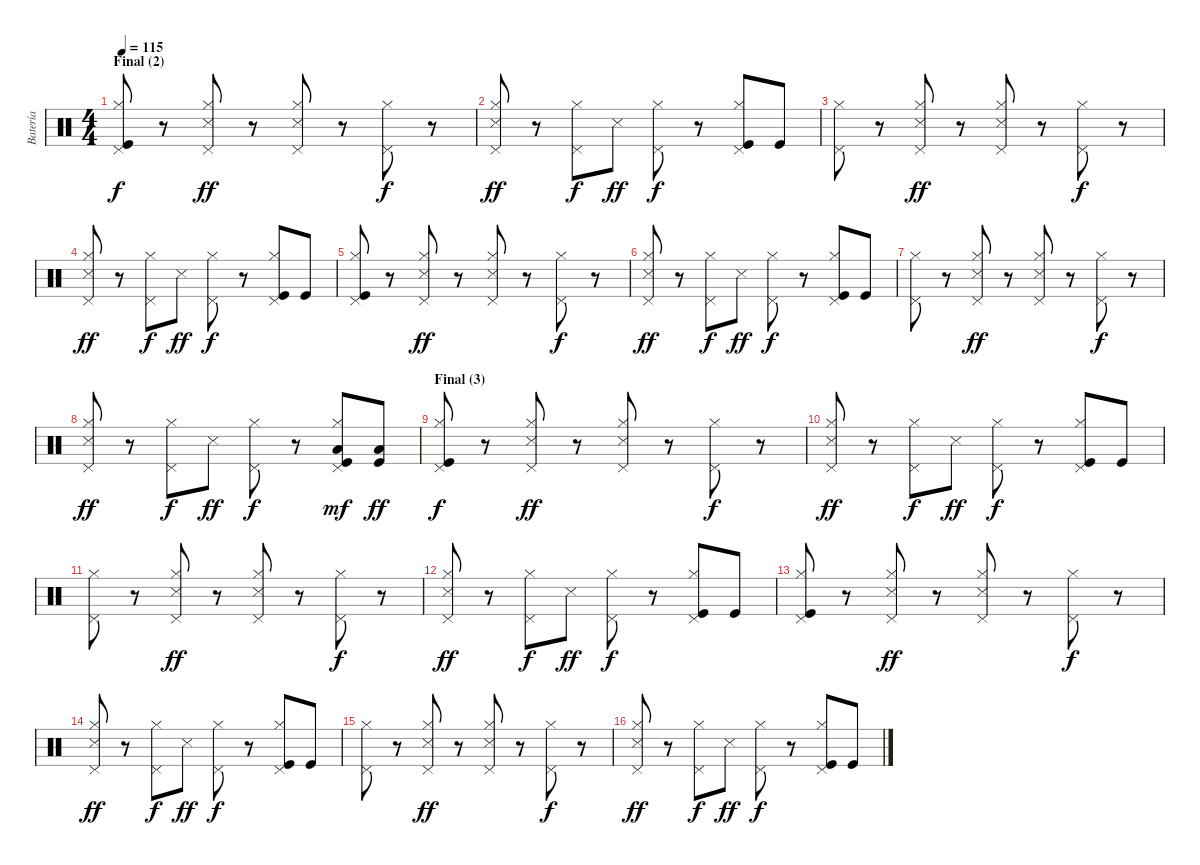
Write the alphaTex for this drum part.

\track ("Batería" "Batería") {instrument percussion}
\staff {score}
\articulation defaults
\ts (4 4)
\section ("" "Final (2)")
\tempo 115
\clef neutral
\ks c
("Pedal Hi-Hat (hit)" "Hi-Hat (closed)" "Kick (hit)").8{dy f} r.8 ("Pedal Hi-Hat (hit)" "Hi-Hat (closed)" "Snare (side stick) 3").8{dy ff} r.8 ("Pedal Hi-Hat (hit)" "Hi-Hat (closed)" "Snare (side stick) 3").8 r.8 ("Pedal Hi-Hat (hit)" "Hi-Hat (closed)").8{dy f} r.8 |
("Pedal Hi-Hat (hit)" "Hi-Hat (closed)" "Snare (side stick) 3").8{dy ff} r.8 ("Pedal Hi-Hat (hit)" "Hi-Hat (closed)").8{dy f} "Snare (side stick) 3".8{dy ff} ("Pedal Hi-Hat (hit)" "Hi-Hat (closed)").8{dy f} r.8 ("Pedal Hi-Hat (hit)" "Hi-Hat (closed)" "Kick (hit)").8 "Kick (hit)".8 |
("Pedal Hi-Hat (hit)" "Hi-Hat (closed)").8 r.8 ("Pedal Hi-Hat (hit)" "Hi-Hat (closed)" "Snare (side stick) 3").8{dy ff} r.8 ("Pedal Hi-Hat (hit)" "Hi-Hat (closed)" "Snare (side stick) 3").8 r.8 ("Pedal Hi-Hat (hit)" "Hi-Hat (closed)").8{dy f} r.8 |
("Pedal Hi-Hat (hit)" "Hi-Hat (closed)" "Snare (side stick) 3").8{dy ff} r.8 ("Pedal Hi-Hat (hit)" "Hi-Hat (closed)").8{dy f} "Snare (side stick) 3".8{dy ff} ("Pedal Hi-Hat (hit)" "Hi-Hat (closed)").8{dy f} r.8 ("Pedal Hi-Hat (hit)" "Hi-Hat (closed)" "Kick (hit)").8 "Kick (hit)".8 |
("Pedal Hi-Hat (hit)" "Hi-Hat (closed)" "Kick (hit)").8 r.8 ("Pedal Hi-Hat (hit)" "Hi-Hat (closed)" "Snare (side stick) 3").8{dy ff} r.8 ("Pedal Hi-Hat (hit)" "Hi-Hat (closed)" "Snare (side stick) 3").8 r.8 ("Pedal Hi-Hat (hit)" "Hi-Hat (closed)").8{dy f} r.8 |
("Pedal Hi-Hat (hit)" "Hi-Hat (closed)" "Snare (side stick) 3").8{dy ff} r.8 ("Pedal Hi-Hat (hit)" "Hi-Hat (closed)").8{dy f} "Snare (side stick) 3".8{dy ff} ("Pedal Hi-Hat (hit)" "Hi-Hat (closed)").8{dy f} r.8 ("Pedal Hi-Hat (hit)" "Hi-Hat (closed)" "Kick (hit)").8 "Kick (hit)".8 |
("Pedal Hi-Hat (hit)" "Hi-Hat (closed)").8 r.8 ("Pedal Hi-Hat (hit)" "Hi-Hat (closed)" "Snare (side stick) 3").8{dy ff} r.8 ("Pedal Hi-Hat (hit)" "Hi-Hat (closed)" "Snare (side stick) 3").8 r.8 ("Pedal Hi-Hat (hit)" "Hi-Hat (closed)").8{dy f} r.8 |
("Pedal Hi-Hat (hit)" "Hi-Hat (closed)" "Snare (side stick) 3").8{dy ff} r.8 ("Pedal Hi-Hat (hit)" "Hi-Hat (closed)").8{dy f} "Snare (side stick) 3".8{dy ff} ("Pedal Hi-Hat (hit)" "Hi-Hat (closed)").8{dy f} r.8 ("Pedal Hi-Hat (hit)" "Hi-Hat (closed)" "Low Tom (hit)" "Kick (hit)").8{dy mf} ("Low Tom (hit)" "Kick (hit)").8{dy ff} |
\section ("" "Final (3)")
("Pedal Hi-Hat (hit)" "Hi-Hat (closed)" "Kick (hit)").8{dy f} r.8 ("Pedal Hi-Hat (hit)" "Hi-Hat (closed)" "Snare (side stick) 3").8{dy ff} r.8 ("Pedal Hi-Hat (hit)" "Hi-Hat (closed)" "Snare (side stick) 3").8 r.8 ("Pedal Hi-Hat (hit)" "Hi-Hat (closed)").8{dy f} r.8 |
("Pedal Hi-Hat (hit)" "Hi-Hat (closed)" "Snare (side stick) 3").8{dy ff} r.8 ("Pedal Hi-Hat (hit)" "Hi-Hat (closed)").8{dy f} "Snare (side stick) 3".8{dy ff} ("Pedal Hi-Hat (hit)" "Hi-Hat (closed)").8{dy f} r.8 ("Pedal Hi-Hat (hit)" "Hi-Hat (closed)" "Kick (hit)").8 "Kick (hit)".8 |
("Pedal Hi-Hat (hit)" "Hi-Hat (closed)").8 r.8 ("Pedal Hi-Hat (hit)" "Hi-Hat (closed)" "Snare (side stick) 3").8{dy ff} r.8 ("Pedal Hi-Hat (hit)" "Hi-Hat (closed)" "Snare (side stick) 3").8 r.8 ("Pedal Hi-Hat (hit)" "Hi-Hat (closed)").8{dy f} r.8 |
("Pedal Hi-Hat (hit)" "Hi-Hat (closed)" "Snare (side stick) 3").8{dy ff} r.8 ("Pedal Hi-Hat (hit)" "Hi-Hat (closed)").8{dy f} "Snare (side stick) 3".8{dy ff} ("Pedal Hi-Hat (hit)" "Hi-Hat (closed)").8{dy f} r.8 ("Pedal Hi-Hat (hit)" "Hi-Hat (closed)" "Kick (hit)").8 "Kick (hit)".8 |
("Pedal Hi-Hat (hit)" "Hi-Hat (closed)" "Kick (hit)").8 r.8 ("Pedal Hi-Hat (hit)" "Hi-Hat (closed)" "Snare (side stick) 3").8{dy ff} r.8 ("Pedal Hi-Hat (hit)" "Hi-Hat (closed)" "Snare (side stick) 3").8 r.8 ("Pedal Hi-Hat (hit)" "Hi-Hat (closed)").8{dy f} r.8 |
("Pedal Hi-Hat (hit)" "Hi-Hat (closed)" "Snare (side stick) 3").8{dy ff} r.8 ("Pedal Hi-Hat (hit)" "Hi-Hat (closed)").8{dy f} "Snare (side stick) 3".8{dy ff} ("Pedal Hi-Hat (hit)" "Hi-Hat (closed)").8{dy f} r.8 ("Pedal Hi-Hat (hit)" "Hi-Hat (closed)" "Kick (hit)").8 "Kick (hit)".8 |
("Pedal Hi-Hat (hit)" "Hi-Hat (closed)").8 r.8 ("Pedal Hi-Hat (hit)" "Hi-Hat (closed)" "Snare (side stick) 3").8{dy ff} r.8 ("Pedal Hi-Hat (hit)" "Hi-Hat (closed)" "Snare (side stick) 3").8 r.8 ("Pedal Hi-Hat (hit)" "Hi-Hat (closed)").8{dy f} r.8 |
("Pedal Hi-Hat (hit)" "Hi-Hat (closed)" "Snare (side stick) 3").8{dy ff} r.8 ("Pedal Hi-Hat (hit)" "Hi-Hat (closed)").8{dy f} "Snare (side stick) 3".8{dy ff} ("Pedal Hi-Hat (hit)" "Hi-Hat (closed)").8{dy f} r.8 ("Pedal Hi-Hat (hit)" "Hi-Hat (closed)" "Kick (hit)").8 "Kick (hit)".8
